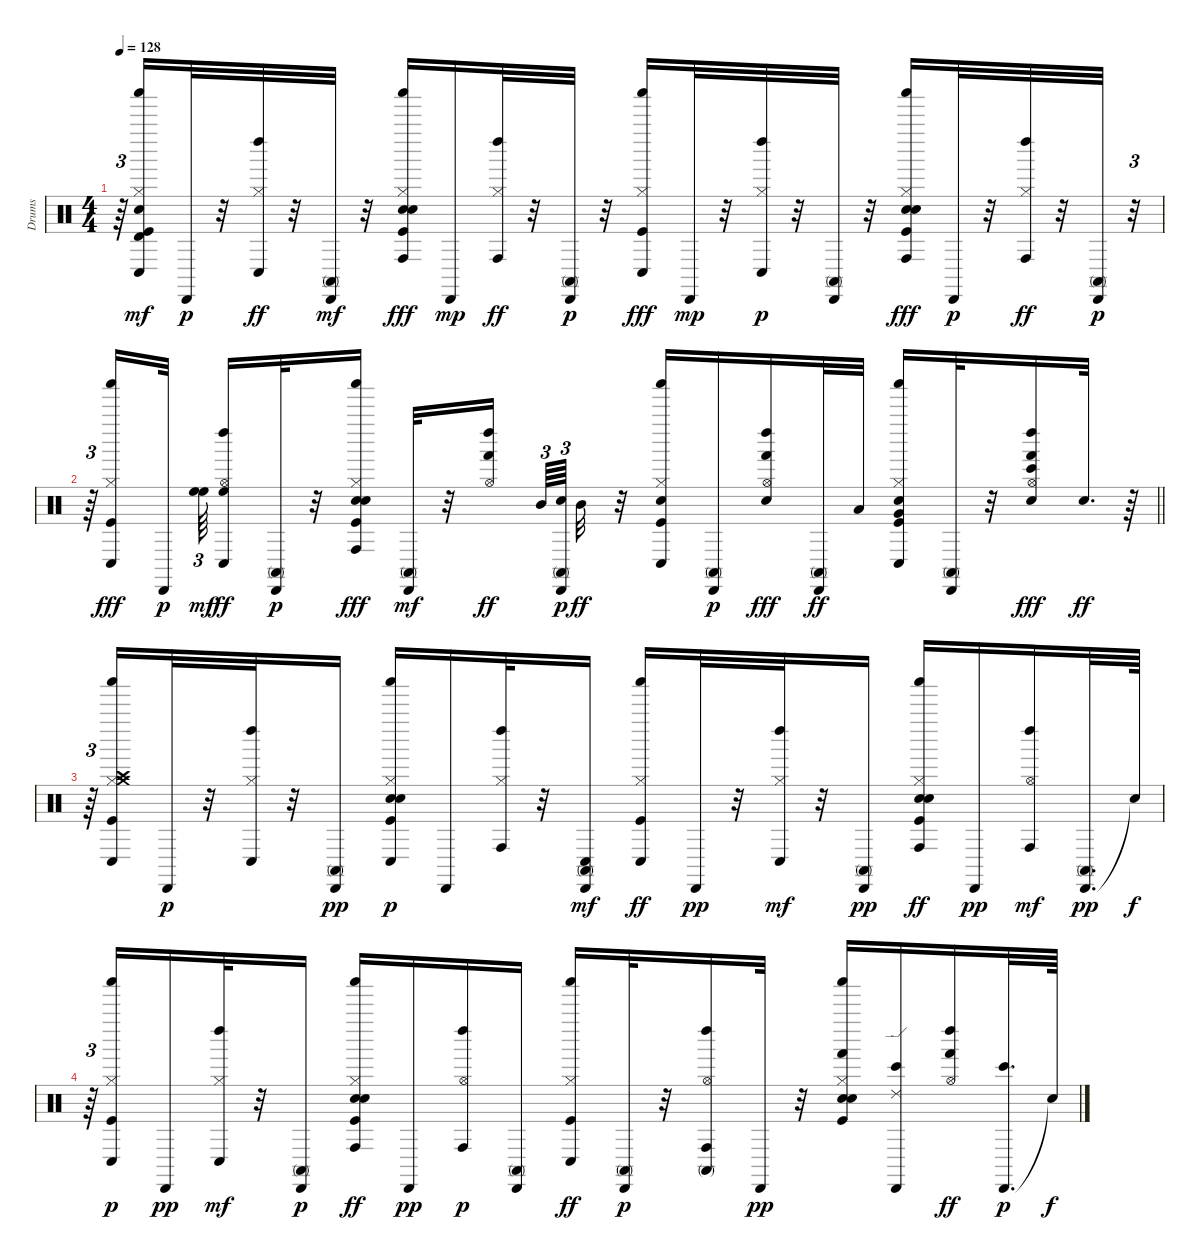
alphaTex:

\track ("Drums" "Drums") {instrument percussion}
\staff {score}
\articulation defaults
\ts (4 4)
\tempo 128
\clef neutral
\ks c
r.64{tu (3 2) dy p} ("Kick (hit)" "Snare (hit) 2" "Hi-Hat (closed)" "Shaker (hit)" "Conga low (hit)" "Timbale high (hit)").16{dy mf} "Cabasa (hit)".32{dy p} r.32 ("Hi-Hat (closed)" "Left Maraca (hit)" "Conga low (hit)").32{dy ff} r.32 ("Cabasa (hit)" "Conga high (mute)").32{dy mf} r.32 ("Kick (hit)" "Snare (hit) 2" "Hand Clap (hit)" "Hi-Hat (closed)" "Shaker (hit)" "Conga high (hit)").16{dy fff} "Cabasa (hit)".16{dy mp} ("Hi-Hat (closed)" "Left Maraca (hit)" "Conga high (hit)").32{dy ff} r.32 ("Cabasa (hit)" "Conga high (mute)").32{dy p} r.32 ("Kick (hit)" "Hi-Hat (closed)" "Shaker (hit)" "Conga low (hit)").16{dy fff} "Cabasa (hit)".32{dy mp} r.32 ("Hi-Hat (closed)" "Left Maraca (hit)" "Conga low (hit)").32{dy p} r.32 ("Cabasa (hit)" "Conga high (mute)").32 r.32 ("Kick (hit)" "Snare (hit) 2" "Hand Clap (hit)" "Hi-Hat (closed)" "Shaker (hit)" "Conga high (hit)").16{dy fff} "Cabasa (hit)".32{dy p} r.32 ("Hi-Hat (closed)" "Left Maraca (hit)" "Conga high (hit)").32{dy ff} r.32 ("Cabasa (hit)" "Conga high (mute)").32{dy p} r.32{tu (3 2)} |
\barLineRight lightlight
r.64{tu (3 2)} ("Kick (hit)" "Hi-Hat (closed)" "Shaker (hit)" "Conga low (hit)").16{dy fff} "Cabasa (hit)".32{dy p beam splitsecondary} ("High Floor Tom (hit)" "High Floor Tom (hit)").64{tu (3 2) dy mf beam splitsecondary} ("Hi-Hat (open)" "Left Maraca (hit)" "High Floor Tom (hit)" "Conga low (hit)").16{dy ff} ("Cabasa (hit)" "Conga high (mute)").32{dy p} r.32 ("Kick (hit)" "Snare (hit) 2" "Hand Clap (hit)" "Hi-Hat (closed)" "Shaker (hit)" "Conga high (hit)").16{dy fff} ("Cabasa (hit)" "Conga high (mute)").32{dy mf} r.32 ("Hi-Hat (open)" "Left Maraca (hit)" "Hand (hit)").16{dy ff beam splitsecondary} "Mid Tom (hit)".64{tu (3 2)} ("Snare (hit) 2" "Cabasa (hit)" "Conga high (mute)").64{tu (3 2) dy p beam splitsecondary} "Mid Tom (hit)".32{dy ff} r.32 ("Kick (hit)" "Snare (hit) 2" "Hi-Hat (closed)" "Shaker (hit)" "Conga low (hit)").16 ("Cabasa (hit)" "Conga high (mute)").16{dy p} ("Snare (hit) 2" "Hi-Hat (open)" "Left Maraca (hit)" "Hand (hit)").16{dy fff} ("Cabasa (hit)" "Conga high (mute)").32{dy ff} "Low Tom (hit)".32 ("Kick (hit)" "Hand Clap (hit)" "Hi-Hat (closed)" "Shaker (hit)" "Conga low (hit)" "Very Low Tom (hit)").16 ("Cabasa (hit)" "Conga high (mute)").32 r.32 ("Snare (hit) 2" "Hi-Hat (open)" "Left Maraca (hit)" "Hand (hit)" "Bongo High (hit)").16{dy fff} "Snare (hit) 2".32{d dy ff} r.64 |
r.64{tu (3 2)} ("Kick (hit)" "Hi-Hat (closed)" "Crash medium (hit)" "Crash high (hit)" "Shaker (hit)" "Conga low (hit)").16 "Cabasa (hit)".32{dy p} r.32 ("Hi-Hat (closed)" "Left Maraca (hit)" "Conga low (hit)").32 r.32 ("Cabasa (hit)" "Conga high (mute)").16{dy pp} ("Kick (hit)" "Snare (hit) 2" "Hand Clap (hit)" "Hi-Hat (closed)" "Shaker (hit)" "Conga low (hit)").16{dy p} "Cabasa (hit)".16 ("Hi-Hat (closed)" "Left Maraca (hit)" "Conga high (hit)").32 r.32 ("Cabasa (hit)" "Conga high (mute)" "Conga low (hit)").16{dy mf} ("Kick (hit)" "Hi-Hat (closed)" "Shaker (hit)" "Conga low (hit)").16{dy ff} "Cabasa (hit)".32{dy pp} r.32 ("Hi-Hat (closed)" "Left Maraca (hit)" "Conga low (hit)").32{dy mf} r.32 ("Cabasa (hit)" "Conga high (mute)").16{dy pp} ("Kick (hit)" "Snare (hit) 2" "Hand Clap (hit)" "Hi-Hat (closed)" "Shaker (hit)" "Conga high (hit)").16{dy ff} "Cabasa (hit)".16{dy pp} ("Hi-Hat (open)" "Left Maraca (hit)" "Conga high (hit)").16{dy mf} ("Cabasa (hit)" "Conga high (mute)").32{d dy pp} "Snare (hit)"{t}.64{dy f} |
r.64{tu (3 2)} ("Kick (hit)" "Hi-Hat (closed)" "Shaker (hit)" "Conga low (hit)").16{dy p} "Cabasa (hit)".16{dy pp} ("Hi-Hat (closed)" "Left Maraca (hit)" "Conga low (hit)").32{dy mf} r.32 ("Cabasa (hit)" "Conga high (mute)").16{dy p} ("Kick (hit)" "Snare (hit) 2" "Hand Clap (hit)" "Hi-Hat (closed)" "Shaker (hit)" "Conga high (hit)").16{dy ff} "Cabasa (hit)".16{dy pp} ("Hi-Hat (open)" "Left Maraca (hit)" "Conga high (hit)").16{dy p} ("Cabasa (hit)" "Conga high (mute)").16 ("Kick (hit)" "Hi-Hat (closed)" "Shaker (hit)" "Conga low (hit)").16{dy ff} ("Cabasa (hit)" "Conga high (mute)").32{dy p} r.32 ("Hi-Hat (open)" "Left Maraca (hit)" "Conga high (hit)" "Conga high (mute)").16 "Cabasa (hit)".32{dy pp} r.32 ("Kick (hit)" "Snare (hit) 2" "Hand Clap (hit)" "Hi-Hat (closed)" "Shaker (hit)" "Hand (hit)").16 ("Cabasa (hit)" "Bongo High (hit)" "Ride (edge) 2").16 ("Hi-Hat (open)" "Left Maraca (hit)" "Hand (hit)").16{dy ff} ("Cabasa (hit)" "Bongo High (hit)").32{d dy p} "Snare (hit)"{t}.64{dy f}
